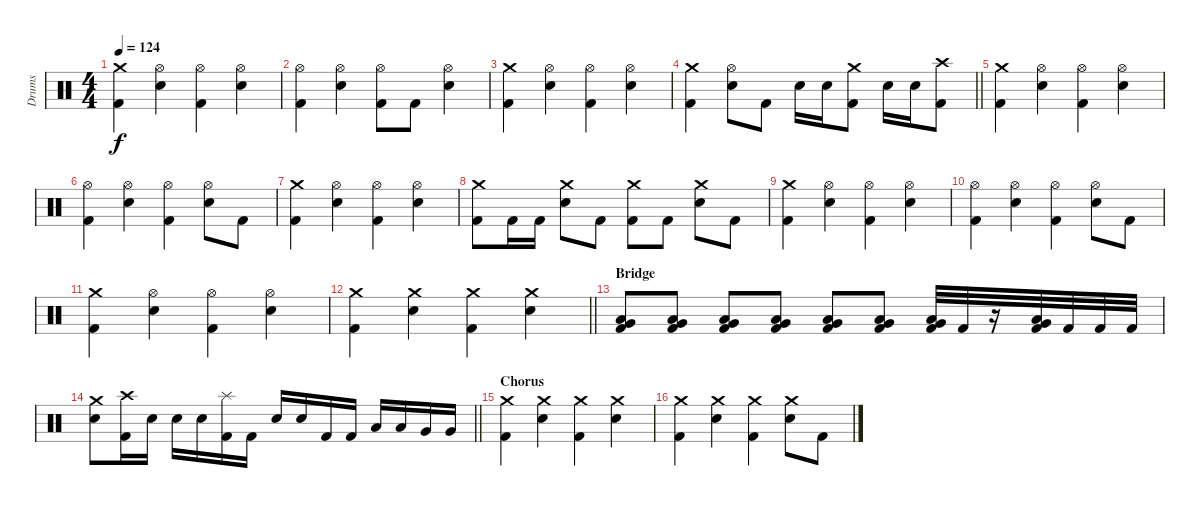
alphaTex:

\track ("Drums" "Drums") {instrument percussion}
\staff {score}
\articulation defaults
\ts (4 4)
\tempo 124
\clef neutral
\ks c
("Crash medium (hit)" "Kick (hit) 2").4{dy f} ("Hi-Hat (open)" "Electric Snare (hit)").4 ("Hi-Hat (open)" "Kick (hit) 2").4 ("Hi-Hat (open)" "Electric Snare (hit)").4 |
("Hi-Hat (open)" "Kick (hit) 2").4 ("Hi-Hat (open)" "Electric Snare (hit)").4 ("Hi-Hat (open)" "Kick (hit) 2").8 "Kick (hit) 2".8 ("Hi-Hat (open)" "Electric Snare (hit)").4 |
("Crash medium (hit)" "Kick (hit) 2").4 ("Hi-Hat (open)" "Electric Snare (hit)").4 ("Hi-Hat (open)" "Kick (hit) 2").4 ("Hi-Hat (open)" "Electric Snare (hit)").4 |
\barLineRight lightlight
("Crash medium (hit)" "Kick (hit) 2").4 ("Hi-Hat (open)" "Electric Snare (hit)").8 "Kick (hit) 2".8 "Electric Snare (hit)".16 "Electric Snare (hit)".16 ("Crash medium (hit)" "Kick (hit) 2").8 "Electric Snare (hit)".16 "Electric Snare (hit)".16 ("Crash high (hit)" "Kick (hit) 2").8 |
("Crash medium (hit)" "Kick (hit) 2").4 ("Hi-Hat (open)" "Electric Snare (hit)").4 ("Hi-Hat (open)" "Kick (hit) 2").4 ("Hi-Hat (open)" "Electric Snare (hit)").4 |
("Hi-Hat (open)" "Kick (hit) 2").4 ("Hi-Hat (open)" "Electric Snare (hit)").4 ("Hi-Hat (open)" "Kick (hit) 2").4 ("Hi-Hat (open)" "Electric Snare (hit)").8 "Kick (hit) 2".8 |
("Crash medium (hit)" "Kick (hit) 2").4 ("Hi-Hat (open)" "Electric Snare (hit)").4 ("Hi-Hat (open)" "Kick (hit) 2").4 ("Hi-Hat (open)" "Electric Snare (hit)").4 |
("Crash medium (hit)" "Kick (hit) 2").8 "Kick (hit) 2".16 "Kick (hit) 2".16 ("Crash medium (hit)" "Electric Snare (hit)").8 "Kick (hit) 2".8 ("Crash medium (hit)" "Kick (hit) 2").8 "Kick (hit) 2".8 ("Crash medium (hit)" "Electric Snare (hit)").8 "Kick (hit) 2".8 |
("Crash medium (hit)" "Kick (hit) 2").4 ("Hi-Hat (open)" "Electric Snare (hit)").4 ("Hi-Hat (open)" "Kick (hit) 2").4 ("Hi-Hat (open)" "Electric Snare (hit)").4 |
("Hi-Hat (open)" "Kick (hit) 2").4 ("Hi-Hat (open)" "Electric Snare (hit)").4 ("Hi-Hat (open)" "Kick (hit) 2").4 ("Hi-Hat (open)" "Electric Snare (hit)").8 "Kick (hit) 2".8 |
("Crash medium (hit)" "Kick (hit) 2").4 ("Hi-Hat (open)" "Electric Snare (hit)").4 ("Hi-Hat (open)" "Kick (hit) 2").4 ("Hi-Hat (open)" "Electric Snare (hit)").4 |
\barLineRight lightlight
("Crash medium (hit)" "Kick (hit) 2").4 ("Crash medium (hit)" "Electric Snare (hit)").4 ("Crash medium (hit)" "Kick (hit) 2").4 ("Crash medium (hit)" "Electric Snare (hit)").4 |
\section ("" "Bridge")
("Low Tom (hit)" "Very Low Tom (hit)" "Kick (hit) 2").8 ("Low Tom (hit)" "Very Low Tom (hit)" "Kick (hit) 2").8 ("Low Tom (hit)" "Very Low Tom (hit)" "Kick (hit) 2").8 ("Low Tom (hit)" "Very Low Tom (hit)" "Kick (hit) 2").8 ("Low Tom (hit)" "Very Low Tom (hit)" "Kick (hit) 2").8 ("Low Tom (hit)" "Very Low Tom (hit)" "Kick (hit) 2").8 ("Low Tom (hit)" "Very Low Tom (hit)" "Kick (hit) 2").32 "Kick (hit) 2".32 r.16 ("Low Tom (hit)" "Very Low Tom (hit)" "Kick (hit) 2").32 "Kick (hit) 2".32 "Kick (hit) 2".32 "Kick (hit) 2".32 |
\barLineRight lightlight
("Crash medium (hit)" "Electric Snare (hit)").8 ("Crash high (hit)" "Kick (hit) 2").16 "Electric Snare (hit)".16 "Electric Snare (hit)".16 "Electric Snare (hit)".16 ("Splash (hit)" "Kick (hit) 2").16 "Kick (hit) 2".16 "Electric Snare (hit)".16 "Electric Snare (hit)".16 "Kick (hit) 2".16 "Kick (hit) 2".16 "Low Tom (hit)".16 "Low Tom (hit)".16 "Very Low Tom (hit)".16 "Very Low Tom (hit)".16 |
\section ("" "Chorus")
("Crash medium (hit)" "Kick (hit) 2").4 ("Crash medium (hit)" "Electric Snare (hit)").4 ("Crash medium (hit)" "Kick (hit) 2").4 ("Crash medium (hit)" "Electric Snare (hit)").4 |
("Crash medium (hit)" "Kick (hit) 2").4 ("Crash medium (hit)" "Electric Snare (hit)").4 ("Crash medium (hit)" "Kick (hit) 2").4 ("Crash medium (hit)" "Electric Snare (hit)").8 "Kick (hit) 2".8
